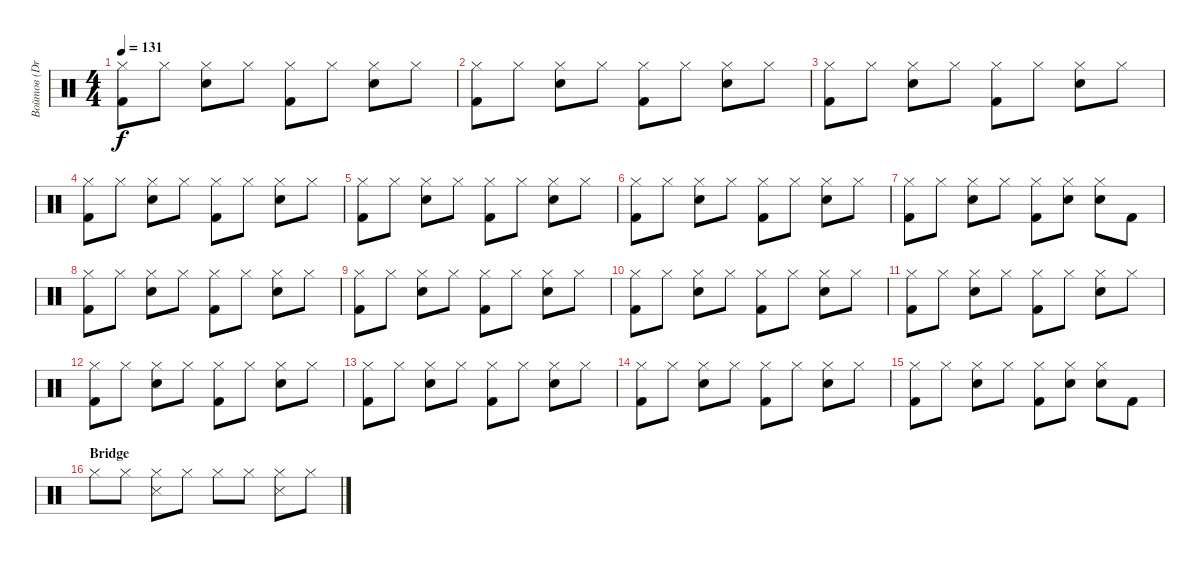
\track ("Войтов (Drums)" "Войтов (Dr") {instrument percussion}
\staff {score}
\articulation defaults
\ts (4 4)
\tempo 131
\clef neutral
\ks c
("Kick (hit) 2" "Hi-Hat (closed)").8{dy f} "Hi-Hat (closed)".8 ("Electric Snare (hit)" "Hi-Hat (closed)").8 "Hi-Hat (closed)".8 ("Kick (hit) 2" "Hi-Hat (closed)").8 "Hi-Hat (closed)".8 ("Electric Snare (hit)" "Hi-Hat (closed)").8 "Hi-Hat (closed)".8 |
("Kick (hit) 2" "Hi-Hat (closed)").8 "Hi-Hat (closed)".8 ("Electric Snare (hit)" "Hi-Hat (closed)").8 "Hi-Hat (closed)".8 ("Kick (hit) 2" "Hi-Hat (closed)").8 "Hi-Hat (closed)".8 ("Electric Snare (hit)" "Hi-Hat (closed)").8 "Hi-Hat (closed)".8 |
("Kick (hit) 2" "Hi-Hat (closed)").8 "Hi-Hat (closed)".8 ("Electric Snare (hit)" "Hi-Hat (closed)").8 "Hi-Hat (closed)".8 ("Kick (hit) 2" "Hi-Hat (closed)").8 "Hi-Hat (closed)".8 ("Electric Snare (hit)" "Hi-Hat (closed)").8 "Hi-Hat (closed)".8 |
("Kick (hit) 2" "Hi-Hat (closed)").8 "Hi-Hat (closed)".8 ("Electric Snare (hit)" "Hi-Hat (closed)").8 "Hi-Hat (closed)".8 ("Kick (hit) 2" "Hi-Hat (closed)").8 "Hi-Hat (closed)".8 ("Electric Snare (hit)" "Hi-Hat (closed)").8 "Hi-Hat (closed)".8 |
("Kick (hit) 2" "Hi-Hat (closed)").8 "Hi-Hat (closed)".8 ("Electric Snare (hit)" "Hi-Hat (closed)").8 "Hi-Hat (closed)".8 ("Kick (hit) 2" "Hi-Hat (closed)").8 "Hi-Hat (closed)".8 ("Electric Snare (hit)" "Hi-Hat (closed)").8 "Hi-Hat (closed)".8 |
("Kick (hit) 2" "Hi-Hat (closed)").8 "Hi-Hat (closed)".8 ("Electric Snare (hit)" "Hi-Hat (closed)").8 "Hi-Hat (closed)".8 ("Kick (hit) 2" "Hi-Hat (closed)").8 "Hi-Hat (closed)".8 ("Electric Snare (hit)" "Hi-Hat (closed)").8 "Hi-Hat (closed)".8 |
("Kick (hit) 2" "Hi-Hat (closed)").8 "Hi-Hat (closed)".8 ("Electric Snare (hit)" "Hi-Hat (closed)").8 "Hi-Hat (closed)".8 ("Kick (hit) 2" "Hi-Hat (closed)").8 ("Electric Snare (hit)" "Hi-Hat (closed)").8 ("Electric Snare (hit)" "Hi-Hat (closed)").8 "Kick (hit) 2".8 |
("Kick (hit) 2" "Hi-Hat (closed)").8 "Hi-Hat (closed)".8 ("Electric Snare (hit)" "Hi-Hat (closed)").8 "Hi-Hat (closed)".8 ("Kick (hit) 2" "Hi-Hat (closed)").8 "Hi-Hat (closed)".8 ("Electric Snare (hit)" "Hi-Hat (closed)").8 "Hi-Hat (closed)".8 |
("Kick (hit) 2" "Hi-Hat (closed)").8 "Hi-Hat (closed)".8 ("Electric Snare (hit)" "Hi-Hat (closed)").8 "Hi-Hat (closed)".8 ("Kick (hit) 2" "Hi-Hat (closed)").8 "Hi-Hat (closed)".8 ("Electric Snare (hit)" "Hi-Hat (closed)").8 "Hi-Hat (closed)".8 |
("Kick (hit) 2" "Hi-Hat (closed)").8 "Hi-Hat (closed)".8 ("Electric Snare (hit)" "Hi-Hat (closed)").8 "Hi-Hat (closed)".8 ("Kick (hit) 2" "Hi-Hat (closed)").8 "Hi-Hat (closed)".8 ("Electric Snare (hit)" "Hi-Hat (closed)").8 "Hi-Hat (closed)".8 |
("Kick (hit) 2" "Hi-Hat (closed)").8 "Hi-Hat (closed)".8 ("Electric Snare (hit)" "Hi-Hat (closed)").8 "Hi-Hat (closed)".8 ("Kick (hit) 2" "Hi-Hat (closed)").8 "Hi-Hat (closed)".8 ("Electric Snare (hit)" "Hi-Hat (closed)").8 "Hi-Hat (closed)".8 |
("Kick (hit) 2" "Hi-Hat (closed)").8 "Hi-Hat (closed)".8 ("Electric Snare (hit)" "Hi-Hat (closed)").8 "Hi-Hat (closed)".8 ("Kick (hit) 2" "Hi-Hat (closed)").8 "Hi-Hat (closed)".8 ("Electric Snare (hit)" "Hi-Hat (closed)").8 "Hi-Hat (closed)".8 |
("Kick (hit) 2" "Hi-Hat (closed)").8 "Hi-Hat (closed)".8 ("Electric Snare (hit)" "Hi-Hat (closed)").8 "Hi-Hat (closed)".8 ("Kick (hit) 2" "Hi-Hat (closed)").8 "Hi-Hat (closed)".8 ("Electric Snare (hit)" "Hi-Hat (closed)").8 "Hi-Hat (closed)".8 |
("Kick (hit) 2" "Hi-Hat (closed)").8 "Hi-Hat (closed)".8 ("Electric Snare (hit)" "Hi-Hat (closed)").8 "Hi-Hat (closed)".8 ("Kick (hit) 2" "Hi-Hat (closed)").8 "Hi-Hat (closed)".8 ("Electric Snare (hit)" "Hi-Hat (closed)").8 "Hi-Hat (closed)".8 |
("Kick (hit) 2" "Hi-Hat (closed)").8 "Hi-Hat (closed)".8 ("Electric Snare (hit)" "Hi-Hat (closed)").8 "Hi-Hat (closed)".8 ("Kick (hit) 2" "Hi-Hat (closed)").8 ("Electric Snare (hit)" "Hi-Hat (closed)").8 ("Electric Snare (hit)" "Hi-Hat (closed)").8 "Kick (hit) 2".8 |
\section ("" "Bridge")
"Hi-Hat (closed)".8 "Hi-Hat (closed)".8 ("Hi-Hat (closed)" "Snare (side stick) 3").8 "Hi-Hat (closed)".8 "Hi-Hat (closed)".8 "Hi-Hat (closed)".8 ("Hi-Hat (closed)" "Snare (side stick) 3").8 "Hi-Hat (closed)".8
